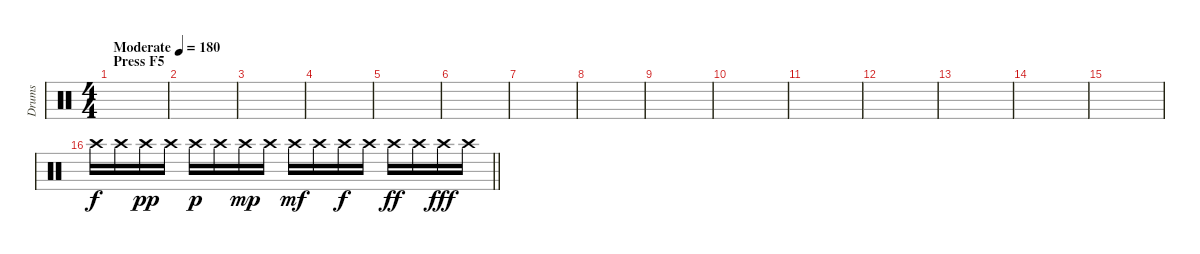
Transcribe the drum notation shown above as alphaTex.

\track ("Drums" "Drums") {instrument percussion}
\staff {score}
\articulation defaults
\ts (4 4)
\section ("" "Press F5")
\tempo (180 "Moderate")
\clef neutral
\ks c
|
|
|
|
|
|
|
|
|
|
|
|
|
|
|
\barLineRight lightlight "Crash high (hit)".16 "Crash high (hit)".16 "Crash high (hit)".16{dy pp} "Crash high (hit)".16 "Crash high (hit)".16{dy p} "Crash high (hit)".16 "Crash high (hit)".16{dy mp} "Crash high (hit)".16 "Crash high (hit)".16{dy mf} "Crash high (hit)".16 "Crash high (hit)".16{dy f} "Crash high (hit)".16 "Crash high (hit)".16{dy ff} "Crash high (hit)".16 "Crash high (hit)".16{dy fff} "Crash high (hit)".16
